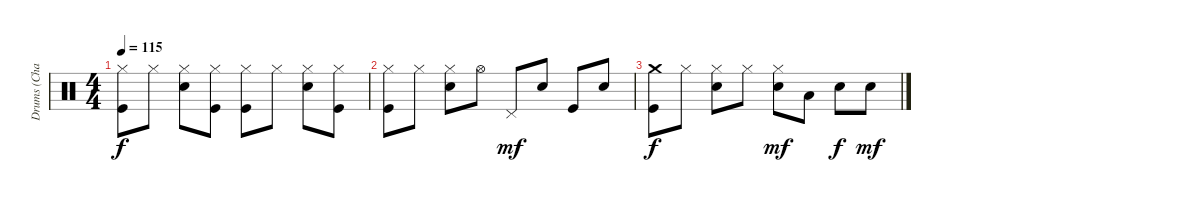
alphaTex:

\track ("Drums (Charlie)" "Drums (Cha") {instrument percussion}
\staff {score}
\articulation defaults
\ts (4 4)
\tempo 115
\clef neutral
\ks c
("Hi-Hat (closed)" "Kick (hit)").8{dy f} "Hi-Hat (closed)".8 ("Hi-Hat (closed)" "Electric Snare (hit)").8 ("Hi-Hat (closed)" "Kick (hit)").8 ("Hi-Hat (closed)" "Kick (hit)").8 "Hi-Hat (closed)".8 ("Hi-Hat (closed)" "Electric Snare (hit)").8 ("Hi-Hat (closed)" "Kick (hit)").8 |
("Hi-Hat (closed)" "Kick (hit)").8 "Hi-Hat (closed)".8 ("Hi-Hat (closed)" "Electric Snare (hit)").8 "Hi-Hat (open)".8 "Pedal Hi-Hat (hit)".8{dy mf} "Electric Snare (hit)".8 "Kick (hit)".8 "Electric Snare (hit)".8 |
("Crash medium (hit)" "Kick (hit)").8{dy f} "Hi-Hat (closed)".8 ("Hi-Hat (closed)" "Electric Snare (hit)").8 "Hi-Hat (closed)".8 ("Hi-Hat (closed)" "Electric Snare (hit)").8{dy mf} "Low Tom (hit)".8 "Electric Snare (hit)".8{dy f} "Electric Snare (hit)".8{dy mf}
